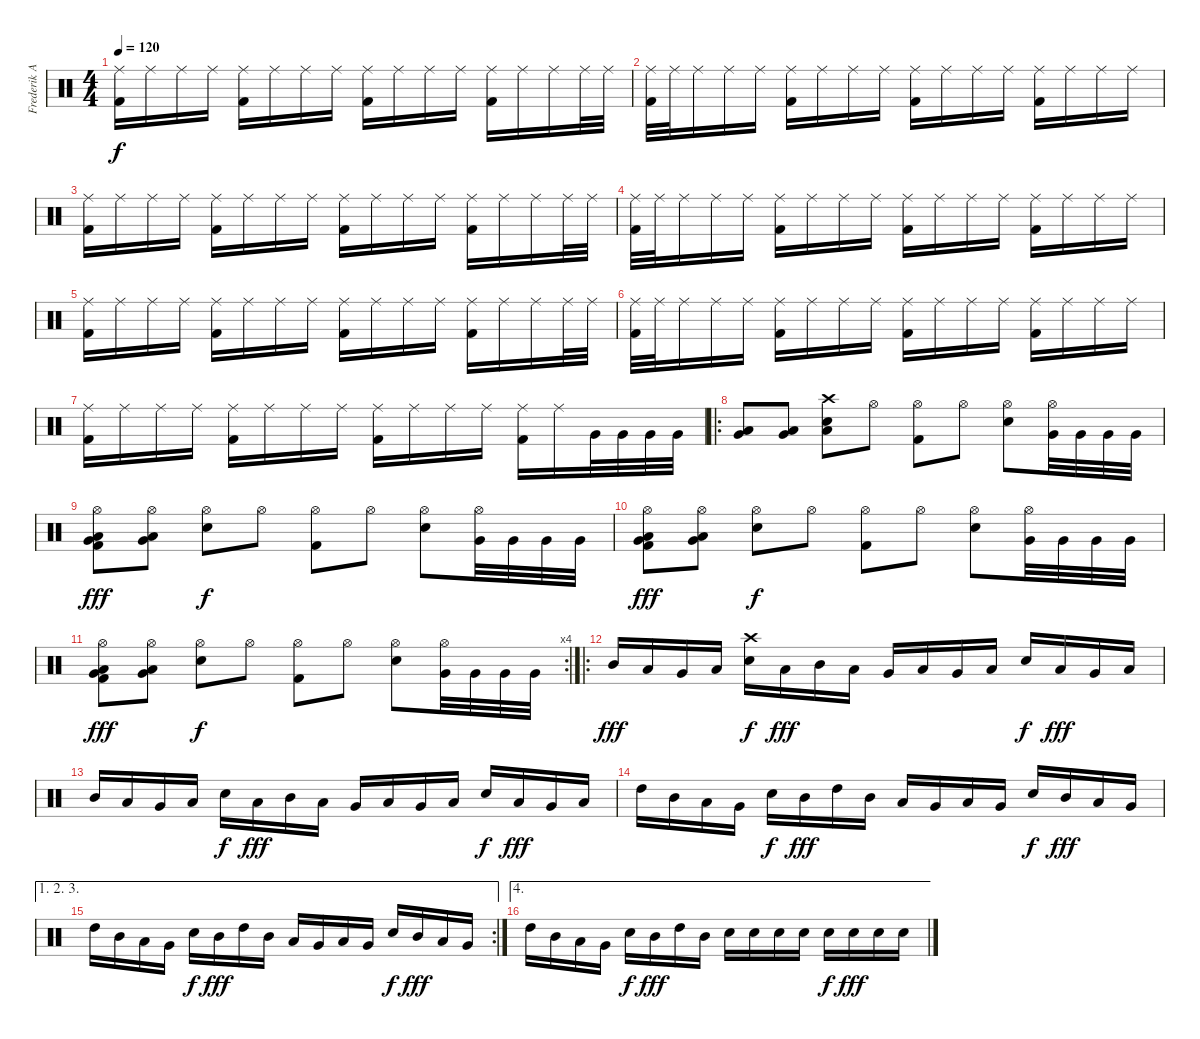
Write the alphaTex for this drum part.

\track ("Frederik Anderson" "Frederik A") {instrument percussion}
\staff {score}
\articulation defaults
\ts (4 4)
\tempo 120
\clef neutral
\ks c
("Ride (middle)" "Kick (hit) 2").16{dy f} "Ride (middle)".16 "Ride (middle)".16 "Ride (middle)".16 ("Ride (middle)" "Kick (hit) 2").16 "Ride (middle)".16 "Ride (middle)".16 "Ride (middle)".16 ("Ride (middle)" "Kick (hit) 2").16 "Ride (middle)".16 "Ride (middle)".16 "Ride (middle)".16 ("Ride (middle)" "Kick (hit) 2").16 "Ride (middle)".16 "Ride (middle)".16 "Ride (middle)".32 "Ride (middle)".32 |
("Ride (middle)" "Kick (hit) 2").32 "Ride (middle)".32 "Ride (middle)".16 "Ride (middle)".16 "Ride (middle)".16 ("Ride (middle)" "Kick (hit) 2").16 "Ride (middle)".16 "Ride (middle)".16 "Ride (middle)".16 ("Ride (middle)" "Kick (hit) 2").16 "Ride (middle)".16 "Ride (middle)".16 "Ride (middle)".16 ("Ride (middle)" "Kick (hit) 2").16 "Ride (middle)".16 "Ride (middle)".16 "Ride (middle)".16 |
("Ride (middle)" "Kick (hit) 2").16 "Ride (middle)".16 "Ride (middle)".16 "Ride (middle)".16 ("Ride (middle)" "Kick (hit) 2").16 "Ride (middle)".16 "Ride (middle)".16 "Ride (middle)".16 ("Ride (middle)" "Kick (hit) 2").16 "Ride (middle)".16 "Ride (middle)".16 "Ride (middle)".16 ("Ride (middle)" "Kick (hit) 2").16 "Ride (middle)".16 "Ride (middle)".16 "Ride (middle)".32 "Ride (middle)".32 |
("Ride (middle)" "Kick (hit) 2").32 "Ride (middle)".32 "Ride (middle)".16 "Ride (middle)".16 "Ride (middle)".16 ("Ride (middle)" "Kick (hit) 2").16 "Ride (middle)".16 "Ride (middle)".16 "Ride (middle)".16 ("Ride (middle)" "Kick (hit) 2").16 "Ride (middle)".16 "Ride (middle)".16 "Ride (middle)".16 ("Ride (middle)" "Kick (hit) 2").16 "Ride (middle)".16 "Ride (middle)".16 "Ride (middle)".16 |
("Ride (middle)" "Kick (hit) 2").16 "Ride (middle)".16 "Ride (middle)".16 "Ride (middle)".16 ("Ride (middle)" "Kick (hit) 2").16 "Ride (middle)".16 "Ride (middle)".16 "Ride (middle)".16 ("Ride (middle)" "Kick (hit) 2").16 "Ride (middle)".16 "Ride (middle)".16 "Ride (middle)".16 ("Ride (middle)" "Kick (hit) 2").16 "Ride (middle)".16 "Ride (middle)".16 "Ride (middle)".32 "Ride (middle)".32 |
("Ride (middle)" "Kick (hit) 2").32 "Ride (middle)".32 "Ride (middle)".16 "Ride (middle)".16 "Ride (middle)".16 ("Ride (middle)" "Kick (hit) 2").16 "Ride (middle)".16 "Ride (middle)".16 "Ride (middle)".16 ("Ride (middle)" "Kick (hit) 2").16 "Ride (middle)".16 "Ride (middle)".16 "Ride (middle)".16 ("Ride (middle)" "Kick (hit) 2").16 "Ride (middle)".16 "Ride (middle)".16 "Ride (middle)".16 |
("Ride (middle)" "Kick (hit) 2").16 "Ride (middle)".16 "Ride (middle)".16 "Ride (middle)".16 ("Ride (middle)" "Kick (hit) 2").16 "Ride (middle)".16 "Ride (middle)".16 "Ride (middle)".16 ("Ride (middle)" "Kick (hit) 2").16 "Ride (middle)".16 "Ride (middle)".16 "Ride (middle)".16 ("Ride (middle)" "Kick (hit) 2").16 "Ride (middle)".16 "Very Low Tom (hit)".32 "Very Low Tom (hit)".32 "Very Low Tom (hit)".32 "Very Low Tom (hit)".32 |
\ro
("Low Tom (hit)" "Very Low Tom (hit)").8 ("Very Low Tom (hit)" "Low Floor Tom (hit)").8 ("Crash high (hit)" "Electric Snare (hit)" "Low Floor Tom (hit)").8 "Hi-Hat (open)".8 ("Hi-Hat (open)" "Kick (hit) 2").8 "Hi-Hat (open)".8 ("Hi-Hat (open)" "Electric Snare (hit)").8 ("Hi-Hat (open)" "Very Low Tom (hit)").32 "Very Low Tom (hit)".32 "Very Low Tom (hit)".32 "Very Low Tom (hit)".32 |
("Hi-Hat (open)" "Low Tom (hit)" "Very Low Tom (hit)" "Kick (hit) 2").8{dy fff} ("Hi-Hat (open)" "Very Low Tom (hit)" "Low Floor Tom (hit)").8 ("Hi-Hat (open)" "Electric Snare (hit)").8{dy f} "Hi-Hat (open)".8 ("Hi-Hat (open)" "Kick (hit) 2").8 "Hi-Hat (open)".8 ("Hi-Hat (open)" "Electric Snare (hit)").8 ("Hi-Hat (open)" "Very Low Tom (hit)").32 "Very Low Tom (hit)".32 "Very Low Tom (hit)".32 "Very Low Tom (hit)".32 |
("Hi-Hat (open)" "Low Tom (hit)" "Very Low Tom (hit)" "Kick (hit) 2").8{dy fff} ("Hi-Hat (open)" "Very Low Tom (hit)" "Low Floor Tom (hit)").8 ("Hi-Hat (open)" "Electric Snare (hit)").8{dy f} "Hi-Hat (open)".8 ("Hi-Hat (open)" "Kick (hit) 2").8 "Hi-Hat (open)".8 ("Hi-Hat (open)" "Electric Snare (hit)").8 ("Hi-Hat (open)" "Very Low Tom (hit)").32 "Very Low Tom (hit)".32 "Very Low Tom (hit)".32 "Very Low Tom (hit)".32 |
\rc 4
("Hi-Hat (open)" "Low Tom (hit)" "Very Low Tom (hit)" "Kick (hit) 2").8{dy fff} ("Hi-Hat (open)" "Very Low Tom (hit)" "Low Floor Tom (hit)").8 ("Hi-Hat (open)" "Electric Snare (hit)").8{dy f} "Hi-Hat (open)".8 ("Hi-Hat (open)" "Kick (hit) 2").8 "Hi-Hat (open)".8 ("Hi-Hat (open)" "Electric Snare (hit)").8 ("Hi-Hat (open)" "Very Low Tom (hit)").32 "Very Low Tom (hit)".32 "Very Low Tom (hit)".32 "Very Low Tom (hit)".32 |
\ro "Mid Tom (hit)".16{dy fff} "Low Tom (hit)".16 "Very Low Tom (hit)".16 "Low Floor Tom (hit)".16
("Crash high (hit)" "Electric Snare (hit)").16{dy f} "Low Tom (hit)".16{dy fff} "Mid Tom (hit)".16 "Low Tom (hit)".16 "Very Low Tom (hit)".16 "Low Floor Tom (hit)".16 "Very Low Tom (hit)".16 "Low Floor Tom (hit)".16 "Electric Snare (hit)".16{dy f} "Low Tom (hit)".16{dy fff} "Very Low Tom (hit)".16 "Low Floor Tom (hit)".16 |
"Mid Tom (hit)".16 "Low Tom (hit)".16 "Very Low Tom (hit)".16 "Low Floor Tom (hit)".16 "Electric Snare (hit)".16{dy f} "Low Tom (hit)".16{dy fff} "Mid Tom (hit)".16 "Low Tom (hit)".16 "Very Low Tom (hit)".16 "Low Floor Tom (hit)".16 "Very Low Tom (hit)".16 "Low Floor Tom (hit)".16 "Electric Snare (hit)".16{dy f} "Low Tom (hit)".16{dy fff} "Very Low Tom (hit)".16 "Low Floor Tom (hit)".16 |
"High Tom (hit)".16 "Mid Tom (hit)".16 "Low Tom (hit)".16 "Very Low Tom (hit)".16 "Electric Snare (hit)".16{dy f} "Mid Tom (hit)".16{dy fff} "High Tom (hit)".16 "Mid Tom (hit)".16 "Low Tom (hit)".16 "Very Low Tom (hit)".16 "Low Tom (hit)".16 "Very Low Tom (hit)".16 "Electric Snare (hit)".16{dy f} "Mid Tom (hit)".16{dy fff} "Low Tom (hit)".16 "Very Low Tom (hit)".16 |
\ae (1 2 3)
\rc 2 "High Tom (hit)".16 "Mid Tom (hit)".16 "Low Tom (hit)".16 "Very Low Tom (hit)".16 "Electric Snare (hit)".16{dy f} "Mid Tom (hit)".16{dy fff} "High Tom (hit)".16 "Mid Tom (hit)".16 "Low Tom (hit)".16 "Very Low Tom (hit)".16 "Low Tom (hit)".16 "Very Low Tom (hit)".16 "Electric Snare (hit)".16{dy f} "Mid Tom (hit)".16{dy fff} "Low Tom (hit)".16 "Very Low Tom (hit)".16
|
\ae 4 "High Tom (hit)".16 "Mid Tom (hit)".16 "Low Tom (hit)".16 "Very Low Tom (hit)".16 "Electric Snare (hit)".16{dy f} "Mid Tom (hit)".16{dy fff} "High Tom (hit)".16 "Mid Tom (hit)".16 "Electric Snare (hit)".16 "Electric Snare (hit)".16 "Electric Snare (hit)".16 "Electric Snare (hit)".16 "Electric Snare (hit)".16{dy f} "Electric Snare (hit)".16{dy fff} "Electric Snare (hit)".16 "Electric Snare (hit)".16
